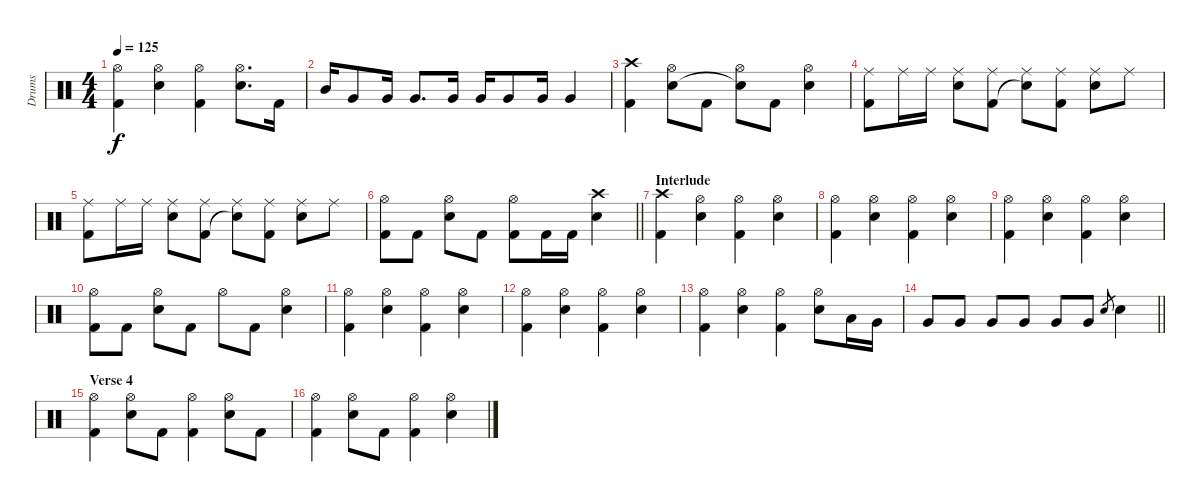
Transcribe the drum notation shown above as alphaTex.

\track ("Drums" "Drums") {instrument percussion}
\staff {score}
\articulation defaults
\ts (4 4)
\tempo 125
\clef neutral
\ks c
("Hi-Hat (open)" "Kick (hit) 2").4{dy f} ("Hi-Hat (open)" "Snare (hit) 2").4 ("Hi-Hat (open)" "Kick (hit) 2").4 ("Hi-Hat (open)" "Snare (hit) 2").8{d} "Kick (hit) 2".16 |
"Mid Tom (hit)".16 "Very Low Tom (hit)".8 "Very Low Tom (hit)".16 "Very Low Tom (hit)".8{d} "Very Low Tom (hit)".16 "Very Low Tom (hit)".16 "Very Low Tom (hit)".8 "Very Low Tom (hit)".16 "Very Low Tom (hit)".4 |
("Crash high (hit)" "Kick (hit) 2").4 ("Hi-Hat (open)" "Snare (hit) 2").8 "Kick (hit) 2".8 ("Hi-Hat (open)" "Snare (hit)"{t}).8 "Kick (hit) 2".8 ("Hi-Hat (open)" "Snare (hit) 2").4 |
("Ride (middle)" "Kick (hit) 2").8 "Ride (middle)".16 "Ride (middle)".16 ("Ride (middle)" "Snare (hit) 2").8 ("Ride (middle)" "Kick (hit) 2").8 ("Ride (middle)" "Snare (hit)"{t}).8 ("Ride (middle)" "Kick (hit) 2").8 ("Ride (middle)" "Snare (hit) 2").8 "Ride (middle)".8 |
("Ride (middle)" "Kick (hit) 2").8 "Ride (middle)".16 "Ride (middle)".16 ("Ride (middle)" "Snare (hit) 2").8 ("Ride (middle)" "Kick (hit) 2").8 ("Ride (middle)" "Snare (hit)"{t}).8 ("Ride (middle)" "Kick (hit) 2").8 ("Ride (middle)" "Snare (hit) 2").8 "Ride (middle)".8 |
\barLineRight lightlight
("Hi-Hat (open)" "Kick (hit) 2").8 "Kick (hit) 2".8 ("Hi-Hat (open)" "Snare (hit) 2").8 "Kick (hit) 2".8 ("Hi-Hat (open)" "Kick (hit) 2").8 "Kick (hit) 2".16 "Kick (hit) 2".16 ("Crash high (hit)" "Snare (hit) 2").4 |
\section ("" "Interlude")
("Crash high (hit)" "Kick (hit) 2").4 ("Hi-Hat (open)" "Snare (hit) 2").4 ("Hi-Hat (open)" "Kick (hit) 2").4 ("Hi-Hat (open)" "Snare (hit) 2").4 |
("Hi-Hat (open)" "Kick (hit) 2").4 ("Hi-Hat (open)" "Snare (hit) 2").4 ("Hi-Hat (open)" "Kick (hit) 2").4 ("Hi-Hat (open)" "Snare (hit) 2").4 |
("Hi-Hat (open)" "Kick (hit) 2").4 ("Hi-Hat (open)" "Snare (hit) 2").4 ("Hi-Hat (open)" "Kick (hit) 2").4 ("Hi-Hat (open)" "Snare (hit) 2").4 |
("Hi-Hat (open)" "Kick (hit) 2").8 "Kick (hit) 2".8 ("Hi-Hat (open)" "Snare (hit) 2").8 "Kick (hit) 2".8 "Hi-Hat (open)".8 "Kick (hit) 2".8 ("Hi-Hat (open)" "Snare (hit) 2").4 |
("Hi-Hat (open)" "Kick (hit) 2").4 ("Hi-Hat (open)" "Snare (hit) 2").4 ("Hi-Hat (open)" "Kick (hit) 2").4 ("Hi-Hat (open)" "Snare (hit) 2").4 |
("Hi-Hat (open)" "Kick (hit) 2").4 ("Hi-Hat (open)" "Snare (hit) 2").4 ("Hi-Hat (open)" "Kick (hit) 2").4 ("Hi-Hat (open)" "Snare (hit) 2").4 |
("Hi-Hat (open)" "Kick (hit) 2").4 ("Hi-Hat (open)" "Snare (hit) 2").4 ("Hi-Hat (open)" "Kick (hit) 2").4 ("Hi-Hat (open)" "Snare (hit) 2").8 "Low Tom (hit)".16 "Very Low Tom (hit)".16 |
\barLineRight lightlight "Very Low Tom (hit)".8 "Very Low Tom (hit)".8 "Very Low Tom (hit)".8 "Very Low Tom (hit)".8 "Very Low Tom (hit)".8 "Very Low Tom (hit)".8 "Snare (hit) 2".8{gr} "Snare (hit) 2".4
|
\section ("" "Verse 4")
("Hi-Hat (open)" "Kick (hit) 2").4 ("Hi-Hat (open)" "Snare (hit) 2").8 "Kick (hit) 2".8 ("Hi-Hat (open)" "Kick (hit) 2").4 ("Hi-Hat (open)" "Snare (hit) 2").8 "Kick (hit) 2".8 |
("Hi-Hat (open)" "Kick (hit) 2").4 ("Hi-Hat (open)" "Snare (hit) 2").8 "Kick (hit) 2".8 ("Hi-Hat (open)" "Kick (hit) 2").4 ("Hi-Hat (open)" "Snare (hit) 2").4
